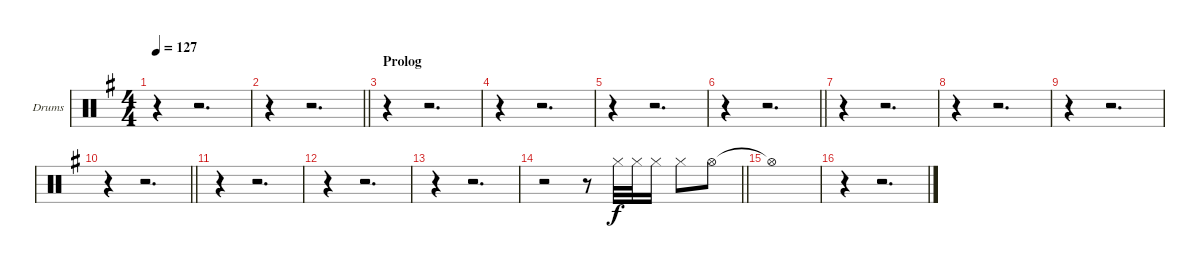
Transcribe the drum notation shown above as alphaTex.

\bracketExtendMode groupsimilarinstruments
\firstSystemTrackNameOrientation horizontal
\otherSystemsTrackNameOrientation horizontal
\track ("drums (Anton Zulganov)" "Drums") {instrument percussion}
\staff {score}
\articulation defaults
\ts (4 4)
\tempo 127
\clef neutral
\ks eminor
r.4{dy f} r.2{d} |
\barLineRight lightlight
r.4 r.2{d} |
\beaming (8 3 3 2)
\section ("" "Prolog")
r.4 r.2{d} |
r.4 r.2{d} |
r.4 r.2{d} |
\barLineRight lightlight
r.4 r.2{d} |
r.4 r.2{d} |
r.4 r.2{d} |
r.4 r.2{d} |
\barLineRight lightlight
r.4 r.2{d} |
r.4 r.2{d} |
r.4 r.2{d} |
r.4 r.2{d} |
\barLineRight lightlight
r.2 r.8 "Hi-Hat (closed)".32 "Hi-Hat (closed)".32 "Hi-Hat (closed)".16 "Hi-Hat (closed)".8 "Hi-Hat (open)".8 |
"Hi-Hat (open)"{t}.1 |
r.4 r.2{d}
